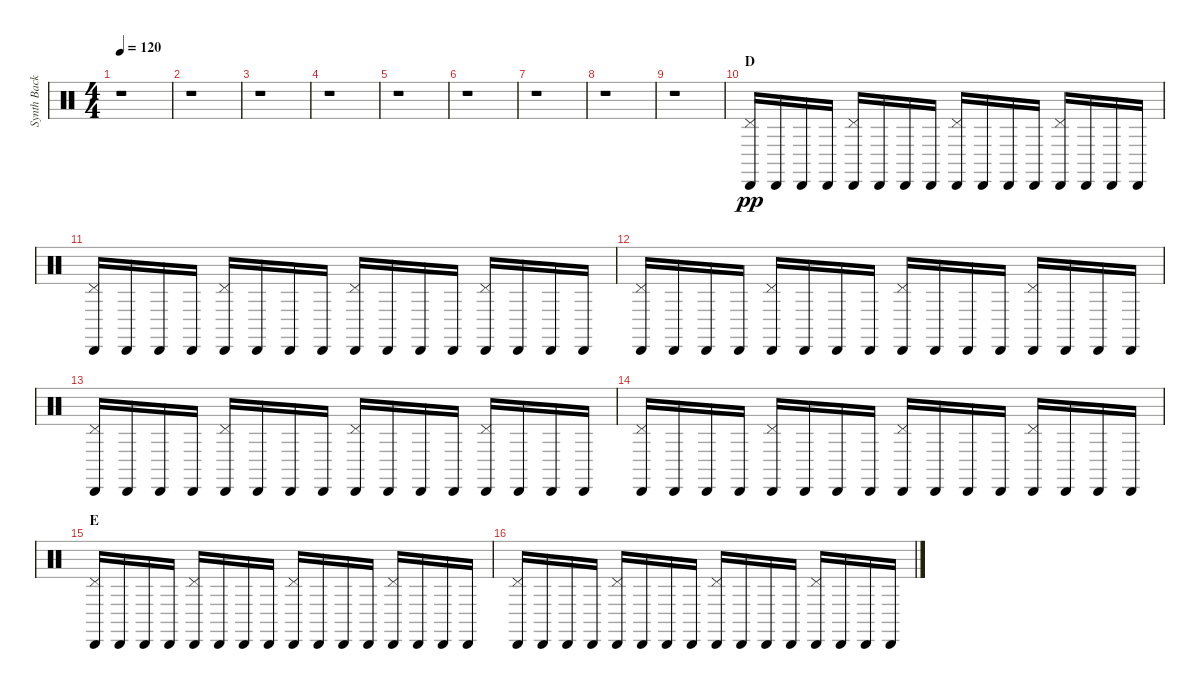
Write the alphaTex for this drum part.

\track ("Synth Background Rhythm" "Synth Back") {instrument percussion}
\staff {score}
\articulation defaults
\ts (4 4)
\tempo 120
\clef neutral
\ks c
r.1{dy pp} |
r.1 |
r.1 |
r.1 |
r.1 |
r.1 |
r.1 |
r.1 |
r.1 |
\section ("" "D")
("Pedal Hi-Hat (hit)" "Cabasa (hit)").16 "Cabasa (hit)".16 "Cabasa (hit)".16 "Cabasa (hit)".16 ("Pedal Hi-Hat (hit)" "Cabasa (hit)").16 "Cabasa (hit)".16 "Cabasa (hit)".16 "Cabasa (hit)".16 ("Pedal Hi-Hat (hit)" "Cabasa (hit)").16 "Cabasa (hit)".16 "Cabasa (hit)".16 "Cabasa (hit)".16 ("Pedal Hi-Hat (hit)" "Cabasa (hit)").16 "Cabasa (hit)".16 "Cabasa (hit)".16 "Cabasa (hit)".16 |
("Pedal Hi-Hat (hit)" "Cabasa (hit)").16 "Cabasa (hit)".16 "Cabasa (hit)".16 "Cabasa (hit)".16 ("Pedal Hi-Hat (hit)" "Cabasa (hit)").16 "Cabasa (hit)".16 "Cabasa (hit)".16 "Cabasa (hit)".16 ("Pedal Hi-Hat (hit)" "Cabasa (hit)").16 "Cabasa (hit)".16 "Cabasa (hit)".16 "Cabasa (hit)".16 ("Pedal Hi-Hat (hit)" "Cabasa (hit)").16 "Cabasa (hit)".16 "Cabasa (hit)".16 "Cabasa (hit)".16 |
("Pedal Hi-Hat (hit)" "Cabasa (hit)").16 "Cabasa (hit)".16 "Cabasa (hit)".16 "Cabasa (hit)".16 ("Pedal Hi-Hat (hit)" "Cabasa (hit)").16 "Cabasa (hit)".16 "Cabasa (hit)".16 "Cabasa (hit)".16 ("Pedal Hi-Hat (hit)" "Cabasa (hit)").16 "Cabasa (hit)".16 "Cabasa (hit)".16 "Cabasa (hit)".16 ("Pedal Hi-Hat (hit)" "Cabasa (hit)").16 "Cabasa (hit)".16 "Cabasa (hit)".16 "Cabasa (hit)".16 |
("Pedal Hi-Hat (hit)" "Cabasa (hit)").16 "Cabasa (hit)".16 "Cabasa (hit)".16 "Cabasa (hit)".16 ("Pedal Hi-Hat (hit)" "Cabasa (hit)").16 "Cabasa (hit)".16 "Cabasa (hit)".16 "Cabasa (hit)".16 ("Pedal Hi-Hat (hit)" "Cabasa (hit)").16 "Cabasa (hit)".16 "Cabasa (hit)".16 "Cabasa (hit)".16 ("Pedal Hi-Hat (hit)" "Cabasa (hit)").16 "Cabasa (hit)".16 "Cabasa (hit)".16 "Cabasa (hit)".16 |
("Pedal Hi-Hat (hit)" "Cabasa (hit)").16 "Cabasa (hit)".16 "Cabasa (hit)".16 "Cabasa (hit)".16 ("Pedal Hi-Hat (hit)" "Cabasa (hit)").16 "Cabasa (hit)".16 "Cabasa (hit)".16 "Cabasa (hit)".16 ("Pedal Hi-Hat (hit)" "Cabasa (hit)").16 "Cabasa (hit)".16 "Cabasa (hit)".16 "Cabasa (hit)".16 ("Pedal Hi-Hat (hit)" "Cabasa (hit)").16 "Cabasa (hit)".16 "Cabasa (hit)".16 "Cabasa (hit)".16 |
\section ("" "E")
("Pedal Hi-Hat (hit)" "Cabasa (hit)").16 "Cabasa (hit)".16 "Cabasa (hit)".16 "Cabasa (hit)".16 ("Pedal Hi-Hat (hit)" "Cabasa (hit)").16 "Cabasa (hit)".16 "Cabasa (hit)".16 "Cabasa (hit)".16 ("Pedal Hi-Hat (hit)" "Cabasa (hit)").16 "Cabasa (hit)".16 "Cabasa (hit)".16 "Cabasa (hit)".16 ("Pedal Hi-Hat (hit)" "Cabasa (hit)").16 "Cabasa (hit)".16 "Cabasa (hit)".16 "Cabasa (hit)".16 |
("Pedal Hi-Hat (hit)" "Cabasa (hit)").16 "Cabasa (hit)".16 "Cabasa (hit)".16 "Cabasa (hit)".16 ("Pedal Hi-Hat (hit)" "Cabasa (hit)").16 "Cabasa (hit)".16 "Cabasa (hit)".16 "Cabasa (hit)".16 ("Pedal Hi-Hat (hit)" "Cabasa (hit)").16 "Cabasa (hit)".16 "Cabasa (hit)".16 "Cabasa (hit)".16 ("Pedal Hi-Hat (hit)" "Cabasa (hit)").16 "Cabasa (hit)".16 "Cabasa (hit)".16 "Cabasa (hit)".16
